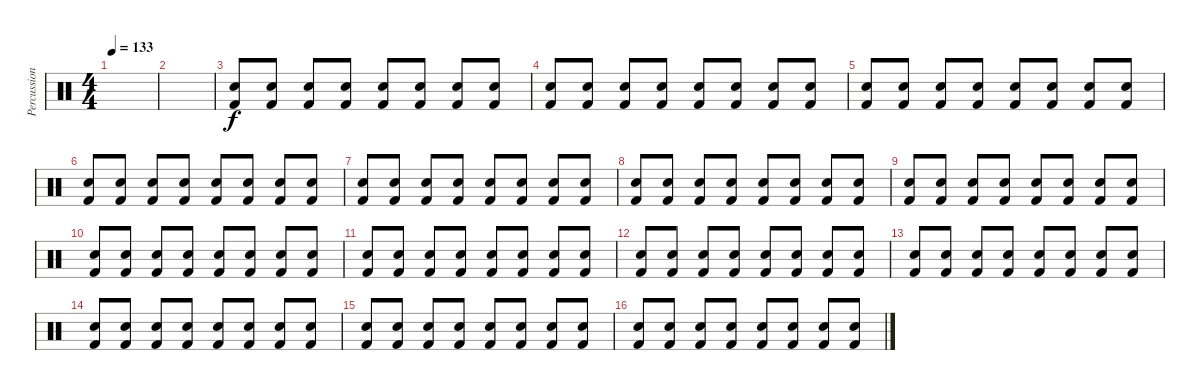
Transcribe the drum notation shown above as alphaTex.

\track ("Percussion" "Percussion") {instrument percussion}
\staff {score}
\articulation defaults
\ts (4 4)
\tempo 133
\clef neutral
\ks c
|
|
("Electric Snare (hit)" "Kick (hit) 2").8{volume 9} ("Electric Snare (hit)" "Kick (hit) 2").8 ("Electric Snare (hit)" "Kick (hit) 2").8 ("Electric Snare (hit)" "Kick (hit) 2").8 ("Electric Snare (hit)" "Kick (hit) 2").8 ("Electric Snare (hit)" "Kick (hit) 2").8 ("Electric Snare (hit)" "Kick (hit) 2").8 ("Electric Snare (hit)" "Kick (hit) 2").8 |
("Electric Snare (hit)" "Kick (hit) 2").8 ("Electric Snare (hit)" "Kick (hit) 2").8 ("Electric Snare (hit)" "Kick (hit) 2").8 ("Electric Snare (hit)" "Kick (hit) 2").8 ("Electric Snare (hit)" "Kick (hit) 2").8 ("Electric Snare (hit)" "Kick (hit) 2").8 ("Electric Snare (hit)" "Kick (hit) 2").8 ("Electric Snare (hit)" "Kick (hit) 2").8 |
("Electric Snare (hit)" "Kick (hit) 2").8 ("Electric Snare (hit)" "Kick (hit) 2").8 ("Electric Snare (hit)" "Kick (hit) 2").8 ("Electric Snare (hit)" "Kick (hit) 2").8 ("Electric Snare (hit)" "Kick (hit) 2").8 ("Electric Snare (hit)" "Kick (hit) 2").8 ("Electric Snare (hit)" "Kick (hit) 2").8 ("Electric Snare (hit)" "Kick (hit) 2").8 |
("Electric Snare (hit)" "Kick (hit) 2").8 ("Electric Snare (hit)" "Kick (hit) 2").8 ("Electric Snare (hit)" "Kick (hit) 2").8 ("Electric Snare (hit)" "Kick (hit) 2").8 ("Electric Snare (hit)" "Kick (hit) 2").8 ("Electric Snare (hit)" "Kick (hit) 2").8 ("Electric Snare (hit)" "Kick (hit) 2").8 ("Electric Snare (hit)" "Kick (hit) 2").8 |
("Electric Snare (hit)" "Kick (hit) 2").8{volume 9} ("Electric Snare (hit)" "Kick (hit) 2").8 ("Electric Snare (hit)" "Kick (hit) 2").8 ("Electric Snare (hit)" "Kick (hit) 2").8 ("Electric Snare (hit)" "Kick (hit) 2").8 ("Electric Snare (hit)" "Kick (hit) 2").8 ("Electric Snare (hit)" "Kick (hit) 2").8 ("Electric Snare (hit)" "Kick (hit) 2").8 |
("Electric Snare (hit)" "Kick (hit) 2").8 ("Electric Snare (hit)" "Kick (hit) 2").8 ("Electric Snare (hit)" "Kick (hit) 2").8 ("Electric Snare (hit)" "Kick (hit) 2").8 ("Electric Snare (hit)" "Kick (hit) 2").8 ("Electric Snare (hit)" "Kick (hit) 2").8 ("Electric Snare (hit)" "Kick (hit) 2").8 ("Electric Snare (hit)" "Kick (hit) 2").8 |
("Electric Snare (hit)" "Kick (hit) 2").8 ("Electric Snare (hit)" "Kick (hit) 2").8 ("Electric Snare (hit)" "Kick (hit) 2").8 ("Electric Snare (hit)" "Kick (hit) 2").8 ("Electric Snare (hit)" "Kick (hit) 2").8 ("Electric Snare (hit)" "Kick (hit) 2").8 ("Electric Snare (hit)" "Kick (hit) 2").8 ("Electric Snare (hit)" "Kick (hit) 2").8 |
("Electric Snare (hit)" "Kick (hit) 2").8 ("Electric Snare (hit)" "Kick (hit) 2").8 ("Electric Snare (hit)" "Kick (hit) 2").8 ("Electric Snare (hit)" "Kick (hit) 2").8 ("Electric Snare (hit)" "Kick (hit) 2").8 ("Electric Snare (hit)" "Kick (hit) 2").8 ("Electric Snare (hit)" "Kick (hit) 2").8 ("Electric Snare (hit)" "Kick (hit) 2").8 |
("Electric Snare (hit)" "Kick (hit) 2").8{volume 9} ("Electric Snare (hit)" "Kick (hit) 2").8 ("Electric Snare (hit)" "Kick (hit) 2").8 ("Electric Snare (hit)" "Kick (hit) 2").8 ("Electric Snare (hit)" "Kick (hit) 2").8 ("Electric Snare (hit)" "Kick (hit) 2").8 ("Electric Snare (hit)" "Kick (hit) 2").8 ("Electric Snare (hit)" "Kick (hit) 2").8 |
("Electric Snare (hit)" "Kick (hit) 2").8 ("Electric Snare (hit)" "Kick (hit) 2").8 ("Electric Snare (hit)" "Kick (hit) 2").8 ("Electric Snare (hit)" "Kick (hit) 2").8 ("Electric Snare (hit)" "Kick (hit) 2").8 ("Electric Snare (hit)" "Kick (hit) 2").8 ("Electric Snare (hit)" "Kick (hit) 2").8 ("Electric Snare (hit)" "Kick (hit) 2").8 |
("Electric Snare (hit)" "Kick (hit) 2").8 ("Electric Snare (hit)" "Kick (hit) 2").8 ("Electric Snare (hit)" "Kick (hit) 2").8 ("Electric Snare (hit)" "Kick (hit) 2").8 ("Electric Snare (hit)" "Kick (hit) 2").8 ("Electric Snare (hit)" "Kick (hit) 2").8 ("Electric Snare (hit)" "Kick (hit) 2").8 ("Electric Snare (hit)" "Kick (hit) 2").8 |
("Electric Snare (hit)" "Kick (hit) 2").8 ("Electric Snare (hit)" "Kick (hit) 2").8 ("Electric Snare (hit)" "Kick (hit) 2").8 ("Electric Snare (hit)" "Kick (hit) 2").8 ("Electric Snare (hit)" "Kick (hit) 2").8 ("Electric Snare (hit)" "Kick (hit) 2").8 ("Electric Snare (hit)" "Kick (hit) 2").8 ("Electric Snare (hit)" "Kick (hit) 2").8 |
("Electric Snare (hit)" "Kick (hit) 2").8{volume 9} ("Electric Snare (hit)" "Kick (hit) 2").8 ("Electric Snare (hit)" "Kick (hit) 2").8 ("Electric Snare (hit)" "Kick (hit) 2").8 ("Electric Snare (hit)" "Kick (hit) 2").8 ("Electric Snare (hit)" "Kick (hit) 2").8 ("Electric Snare (hit)" "Kick (hit) 2").8 ("Electric Snare (hit)" "Kick (hit) 2").8 |
("Electric Snare (hit)" "Kick (hit) 2").8 ("Electric Snare (hit)" "Kick (hit) 2").8 ("Electric Snare (hit)" "Kick (hit) 2").8 ("Electric Snare (hit)" "Kick (hit) 2").8 ("Electric Snare (hit)" "Kick (hit) 2").8 ("Electric Snare (hit)" "Kick (hit) 2").8 ("Electric Snare (hit)" "Kick (hit) 2").8 ("Electric Snare (hit)" "Kick (hit) 2").8
